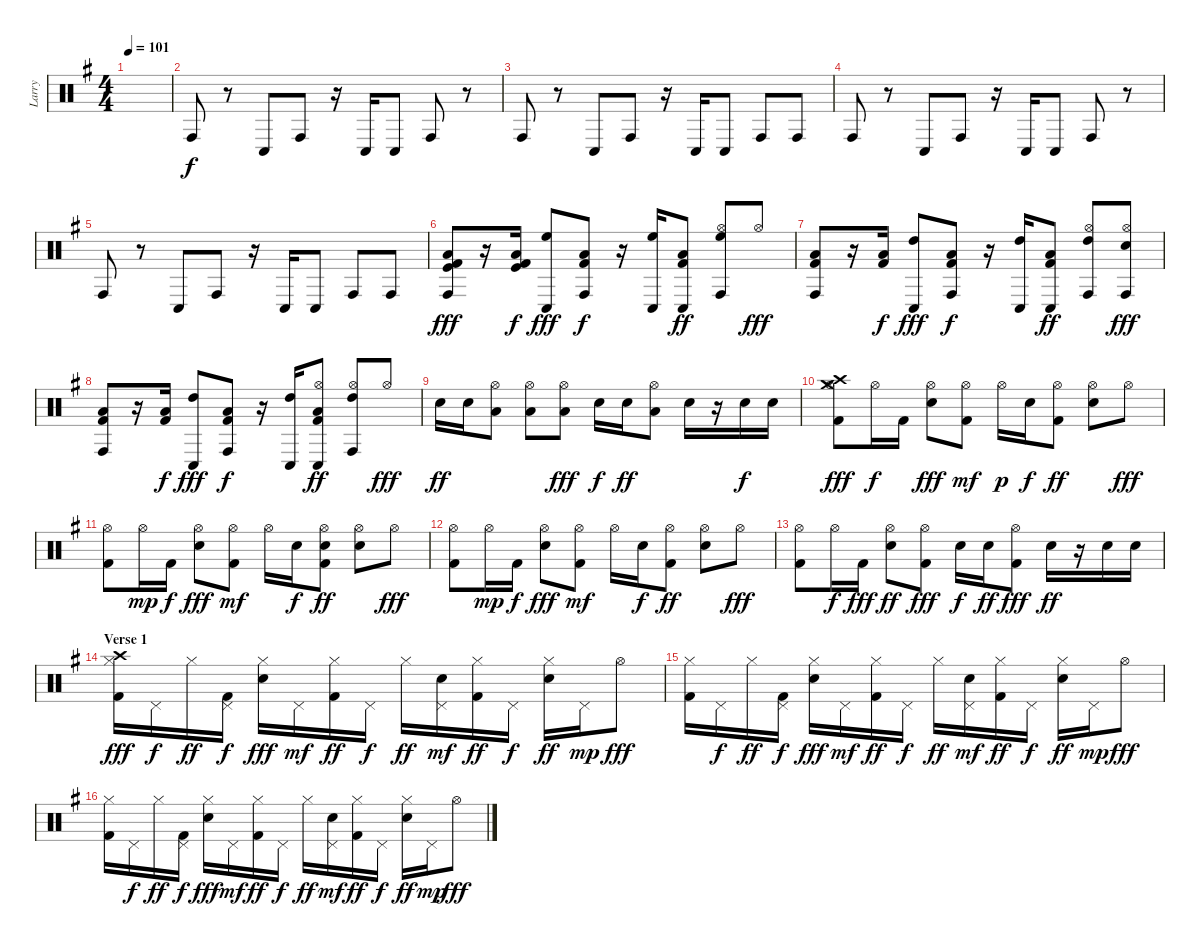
\track ("Larry" "Larry") {instrument percussion}
\staff {score}
\articulation defaults
\ts (4 4)
\tempo 101
\clef neutral
\ks eminor
|
"Conga high (hit)".8 r.8 "Conga low (hit)".8 "Conga high (hit)".8 r.16 "Conga low (hit)".16 "Conga low (hit)".8 "Conga high (hit)".8 r.8 |
"Conga high (hit)".8 r.8 "Conga low (hit)".8 "Conga high (hit)".8 r.16 "Conga low (hit)".16 "Conga low (hit)".8 "Conga high (hit)".8 "Conga high (hit)".8 |
"Conga high (hit)".8 r.8 "Conga low (hit)".8 "Conga high (hit)".8 r.16 "Conga low (hit)".16 "Conga low (hit)".8 "Conga high (hit)".8 r.8 |
"Conga high (hit)".8 r.8 "Conga low (hit)".8 "Conga high (hit)".8 r.16 "Conga low (hit)".16 "Conga low (hit)".8 "Conga high (hit)".8 "Conga high (hit)".8 |
("Conga high (hit)" "Kick (hit) 2" "Low Floor Tom (hit)" "Kick (hit)").8{dy fff volume 10} r.16 ("Kick (hit) 2" "Low Floor Tom (hit)" "Kick (hit)").16{dy f} ("Conga low (hit)" "High Floor Tom (hit)").8{dy fff} ("Conga high (hit)" "Kick (hit) 2" "Low Floor Tom (hit)").8{dy f} r.16 ("High Floor Tom (hit)" "Conga low (hit)").16 ("Kick (hit) 2" "Conga low (hit)" "Low Floor Tom (hit)").8{dy ff} ("Hi-Hat (open)"{pm} "High Floor Tom (hit)" "Conga high (hit)").8 "Hi-Hat (open)"{pm}.8{dy fff} |
("Conga high (hit)" "Kick (hit) 2" "Low Floor Tom (hit)").8 r.16 ("Kick (hit) 2" "Low Floor Tom (hit)").16{dy f} ("Conga low (hit)" "High Tom (hit)").8{dy fff} ("Conga high (hit)" "Kick (hit) 2" "Low Floor Tom (hit)").8{dy f} r.16 ("High Tom (hit)" "Conga low (hit)").16 ("Kick (hit) 2" "Conga low (hit)" "Low Floor Tom (hit)").8{dy ff} ("Hi-Hat (open)" "High Tom (hit)" "Conga high (hit)").8 ("Hi-Hat (open)" "Conga high (hit)" "Electric Snare (hit)").8{dy fff} |
("Conga high (hit)" "Kick (hit) 2" "Low Floor Tom (hit)").8 r.16 ("Kick (hit) 2" "Low Floor Tom (hit)").16{dy f} ("Conga low (hit)" "High Tom (hit)").8{dy fff} ("Conga high (hit)" "Kick (hit) 2" "Low Floor Tom (hit)").8{dy f} r.16 ("High Tom (hit)" "Conga low (hit)").16 ("Hi-Hat (open)" "Kick (hit) 2" "Conga low (hit)" "Low Floor Tom (hit)").8{dy ff} ("Hi-Hat (open)" "High Tom (hit)" "Conga high (hit)").8 "Hi-Hat (open)".8{dy fff} |
"Snare (hit) 2".16{dy ff volume 13} "Snare (hit) 2".16 ("Hi-Hat (open)" "Low Floor Tom (hit)").8 ("Hi-Hat (open)" "Low Floor Tom (hit)").8 ("Hi-Hat (open)" "Low Floor Tom (hit)").8{dy fff} "Snare (hit) 2".16{dy f} "Snare (hit) 2".16{dy ff} ("Hi-Hat (open)" "Low Floor Tom (hit)").8 "Snare (hit) 2".16 r.16 "Snare (hit) 2".16{dy f} "Snare (hit) 2".16 |
("Hi-Hat (open)" "Crash high (hit)" "Crash medium (hit)" "Kick (hit) 2").8{dy fff} "Hi-Hat (open)".16{dy f} "Kick (hit) 2".16 ("Hi-Hat (open)" "Snare (hit) 2").8{dy fff} ("Hi-Hat (open)" "Kick (hit) 2").8{dy mf} "Hi-Hat (open)".16{dy p} "Snare (hit) 2".16{dy f} ("Hi-Hat (open)" "Kick (hit) 2").8{dy ff} ("Hi-Hat (open)" "Snare (hit) 2").8 "Hi-Hat (open)".8{dy fff} |
("Hi-Hat (open)" "Kick (hit) 2").8 "Hi-Hat (open)".16{dy mp} "Kick (hit) 2".16{dy f} ("Hi-Hat (open)" "Snare (hit) 2").8{dy fff} ("Hi-Hat (open)" "Kick (hit) 2").8{dy mf} "Hi-Hat (open)".16 "Snare (hit) 2".16{dy f} ("Hi-Hat (open)" "Kick (hit) 2" "Snare (hit) 2").8{dy ff} ("Hi-Hat (open)" "Snare (hit) 2").8 "Hi-Hat (open)".8{dy fff} |
("Hi-Hat (open)" "Kick (hit) 2").8 "Hi-Hat (open)".16{dy mp} "Kick (hit) 2".16{dy f} ("Hi-Hat (open)" "Snare (hit) 2").8{dy fff} ("Hi-Hat (open)" "Kick (hit) 2").8{dy mf} "Hi-Hat (open)".16 "Snare (hit) 2".16{dy f} ("Hi-Hat (open)" "Kick (hit) 2").8{dy ff} ("Hi-Hat (open)" "Snare (hit) 2").8 "Hi-Hat (open)".8{dy fff} |
("Hi-Hat (open)" "Kick (hit) 2").8 "Hi-Hat (open)".16{dy f} "Kick (hit) 2".16{dy fff} ("Hi-Hat (open)" "Snare (hit) 2").8{dy ff} ("Hi-Hat (open)" "Kick (hit) 2").8{dy fff} "Snare (hit) 2".16{dy f} "Snare (hit) 2".16{dy ff} ("Hi-Hat (open)" "Kick (hit) 2").8{dy fff} "Snare (hit) 2".16{dy ff} r.16 "Snare (hit) 2".16 "Snare (hit) 2".16 |
\section ("" "Verse 1")
("Hi-Hat (closed)" "Kick (hit) 2" "Crash high (hit)").16{dy fff} "Pedal Hi-Hat (hit)".16{dy f} "Hi-Hat (closed)".16{dy ff} ("Kick (hit) 2" "Pedal Hi-Hat (hit)").16{dy f} ("Hi-Hat (closed)" "Snare (hit) 2").16{dy fff} "Pedal Hi-Hat (hit)".16{dy mf} ("Hi-Hat (closed)" "Kick (hit) 2").16{dy ff} "Pedal Hi-Hat (hit)".16{dy f} "Hi-Hat (closed)".16{dy ff} ("Snare (hit) 2" "Pedal Hi-Hat (hit)").16{dy mf} ("Hi-Hat (closed)" "Kick (hit) 2").16{dy ff} "Pedal Hi-Hat (hit)".16{dy f} ("Hi-Hat (closed)" "Snare (hit) 2").16{dy ff} "Pedal Hi-Hat (hit)".16{dy mp} "Hi-Hat (open)".8{dy fff} |
("Hi-Hat (closed)" "Kick (hit) 2").16 "Pedal Hi-Hat (hit)".16{dy f} "Hi-Hat (closed)".16{dy ff} ("Kick (hit) 2" "Pedal Hi-Hat (hit)").16{dy f} ("Hi-Hat (closed)" "Snare (hit) 2").16{dy fff} "Pedal Hi-Hat (hit)".16{dy mf} ("Hi-Hat (closed)" "Kick (hit) 2").16{dy ff} "Pedal Hi-Hat (hit)".16{dy f} "Hi-Hat (closed)".16{dy ff} ("Snare (hit) 2" "Pedal Hi-Hat (hit)").16{dy mf} ("Hi-Hat (closed)" "Kick (hit) 2").16{dy ff} "Pedal Hi-Hat (hit)".16{dy f} ("Hi-Hat (closed)" "Snare (hit) 2").16{dy ff} "Pedal Hi-Hat (hit)".16{dy mp} "Hi-Hat (open)".8{dy fff} |
("Hi-Hat (closed)" "Kick (hit) 2").16 "Pedal Hi-Hat (hit)".16{dy f} "Hi-Hat (closed)".16{dy ff} ("Kick (hit) 2" "Pedal Hi-Hat (hit)").16{dy f} ("Hi-Hat (closed)" "Snare (hit) 2").16{dy fff} "Pedal Hi-Hat (hit)".16{dy mf} ("Hi-Hat (closed)" "Kick (hit) 2").16{dy ff} "Pedal Hi-Hat (hit)".16{dy f} "Hi-Hat (closed)".16{dy ff} ("Snare (hit) 2" "Pedal Hi-Hat (hit)").16{dy mf} ("Hi-Hat (closed)" "Kick (hit) 2").16{dy ff} "Pedal Hi-Hat (hit)".16{dy f} ("Hi-Hat (closed)" "Snare (hit) 2").16{dy ff} "Pedal Hi-Hat (hit)".16{dy mp} "Hi-Hat (open)".8{dy fff}
